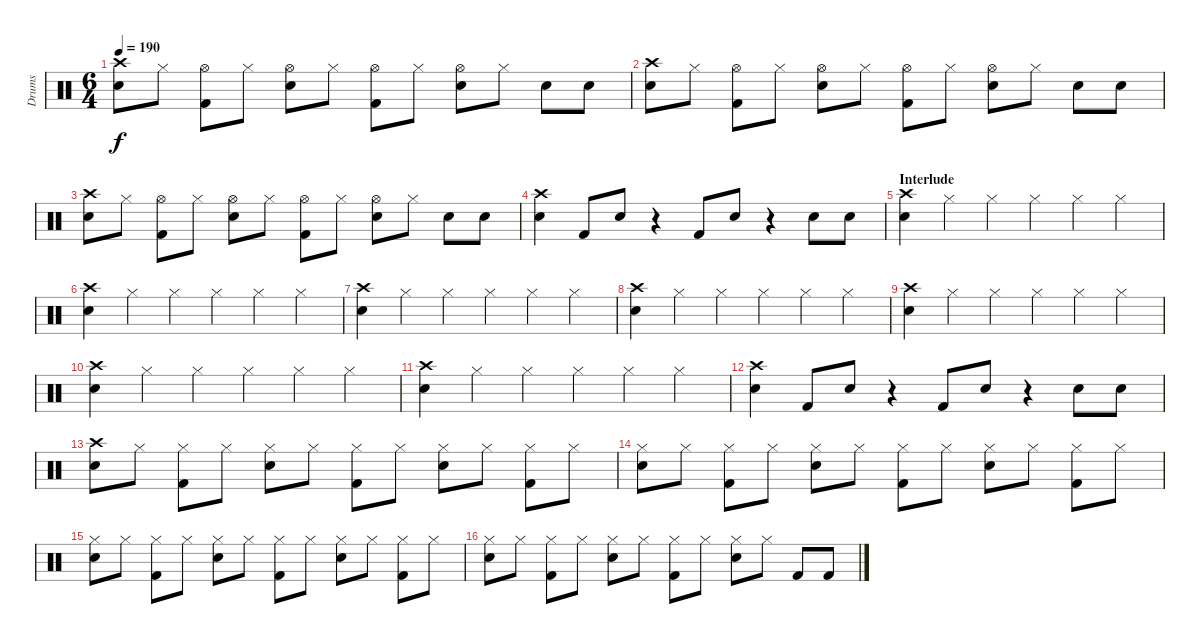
\track ("Drums" "Drums") {instrument percussion}
\staff {score}
\articulation defaults
\ts (6 4)
\tempo 190
\clef neutral
\ks c
("Crash high (hit)" "Snare (hit) 2").8{dy f} "Hi-Hat (closed)".8 ("Hi-Hat (open)" "Kick (hit) 2").8 "Hi-Hat (closed)".8 ("Hi-Hat (open)" "Snare (hit) 2").8 "Hi-Hat (closed)".8 ("Hi-Hat (open)" "Kick (hit) 2").8 "Hi-Hat (closed)".8 ("Hi-Hat (open)" "Snare (hit) 2").8 "Hi-Hat (closed)".8 "Snare (hit) 2".8 "Snare (hit) 2".8 |
("Crash high (hit)" "Snare (hit) 2").8 "Hi-Hat (closed)".8 ("Hi-Hat (open)" "Kick (hit) 2").8 "Hi-Hat (closed)".8 ("Hi-Hat (open)" "Snare (hit) 2").8 "Hi-Hat (closed)".8 ("Hi-Hat (open)" "Kick (hit) 2").8 "Hi-Hat (closed)".8 ("Hi-Hat (open)" "Snare (hit) 2").8 "Hi-Hat (closed)".8 "Snare (hit) 2".8 "Snare (hit) 2".8 |
("Crash high (hit)" "Snare (hit) 2").8 "Hi-Hat (closed)".8 ("Hi-Hat (open)" "Kick (hit) 2").8 "Hi-Hat (closed)".8 ("Hi-Hat (open)" "Snare (hit) 2").8 "Hi-Hat (closed)".8 ("Hi-Hat (open)" "Kick (hit) 2").8 "Hi-Hat (closed)".8 ("Hi-Hat (open)" "Snare (hit) 2").8 "Hi-Hat (closed)".8 "Snare (hit) 2".8 "Snare (hit) 2".8 |
("Crash high (hit)" "Snare (hit) 2").4 "Kick (hit) 2".8 "Snare (hit) 2".8 r.4 "Kick (hit) 2".8 "Snare (hit) 2".8 r.4 "Snare (hit) 2".8 "Snare (hit) 2".8 |
\section ("" "Interlude")
("Crash high (hit)" "Snare (hit) 2").4 "Hi-Hat (closed)".4 "Hi-Hat (closed)".4 "Hi-Hat (closed)".4 "Hi-Hat (closed)".4 "Hi-Hat (closed)".4 |
("Crash high (hit)" "Snare (hit) 2").4 "Hi-Hat (closed)".4 "Hi-Hat (closed)".4 "Hi-Hat (closed)".4 "Hi-Hat (closed)".4 "Hi-Hat (closed)".4 |
("Crash high (hit)" "Snare (hit) 2").4 "Hi-Hat (closed)".4 "Hi-Hat (closed)".4 "Hi-Hat (closed)".4 "Hi-Hat (closed)".4 "Hi-Hat (closed)".4 |
("Crash high (hit)" "Snare (hit) 2").4 "Hi-Hat (closed)".4 "Hi-Hat (closed)".4 "Hi-Hat (closed)".4 "Hi-Hat (closed)".4 "Hi-Hat (closed)".4 |
("Crash high (hit)" "Snare (hit) 2").4 "Hi-Hat (closed)".4 "Hi-Hat (closed)".4 "Hi-Hat (closed)".4 "Hi-Hat (closed)".4 "Hi-Hat (closed)".4 |
("Crash high (hit)" "Snare (hit) 2").4 "Hi-Hat (closed)".4 "Hi-Hat (closed)".4 "Hi-Hat (closed)".4 "Hi-Hat (closed)".4 "Hi-Hat (closed)".4 |
("Crash high (hit)" "Snare (hit) 2").4 "Hi-Hat (closed)".4 "Hi-Hat (closed)".4 "Hi-Hat (closed)".4 "Hi-Hat (closed)".4 "Hi-Hat (closed)".4 |
("Crash high (hit)" "Snare (hit) 2").4 "Kick (hit) 2".8 "Snare (hit) 2".8 r.4 "Kick (hit) 2".8 "Snare (hit) 2".8 r.4 "Snare (hit) 2".8 "Snare (hit) 2".8 |
("Crash high (hit)" "Snare (hit) 2").8 "Hi-Hat (closed)".8 ("Hi-Hat (closed)" "Kick (hit) 2").8 "Hi-Hat (closed)".8 ("Hi-Hat (closed)" "Snare (hit) 2").8 "Hi-Hat (closed)".8 ("Hi-Hat (closed)" "Kick (hit) 2").8 "Hi-Hat (closed)".8 ("Hi-Hat (closed)" "Snare (hit) 2").8 "Hi-Hat (closed)".8 ("Hi-Hat (closed)" "Kick (hit) 2").8 "Hi-Hat (closed)".8 |
("Hi-Hat (closed)" "Snare (hit) 2").8 "Hi-Hat (closed)".8 ("Hi-Hat (closed)" "Kick (hit) 2").8 "Hi-Hat (closed)".8 ("Hi-Hat (closed)" "Snare (hit) 2").8 "Hi-Hat (closed)".8 ("Hi-Hat (closed)" "Kick (hit) 2").8 "Hi-Hat (closed)".8 ("Hi-Hat (closed)" "Snare (hit) 2").8 "Hi-Hat (closed)".8 ("Hi-Hat (closed)" "Kick (hit) 2").8 "Hi-Hat (closed)".8 |
("Hi-Hat (closed)" "Snare (hit) 2").8 "Hi-Hat (closed)".8 ("Hi-Hat (closed)" "Kick (hit) 2").8 "Hi-Hat (closed)".8 ("Hi-Hat (closed)" "Snare (hit) 2").8 "Hi-Hat (closed)".8 ("Hi-Hat (closed)" "Kick (hit) 2").8 "Hi-Hat (closed)".8 ("Hi-Hat (closed)" "Snare (hit) 2").8 "Hi-Hat (closed)".8 ("Hi-Hat (closed)" "Kick (hit) 2").8 "Hi-Hat (closed)".8 |
("Hi-Hat (closed)" "Snare (hit) 2").8 "Hi-Hat (closed)".8 ("Hi-Hat (closed)" "Kick (hit) 2").8 "Hi-Hat (closed)".8 ("Hi-Hat (closed)" "Snare (hit) 2").8 "Hi-Hat (closed)".8 ("Hi-Hat (closed)" "Kick (hit) 2").8 "Hi-Hat (closed)".8 ("Hi-Hat (closed)" "Snare (hit) 2").8 "Hi-Hat (closed)".8 "Kick (hit) 2".8 "Kick (hit) 2".8
